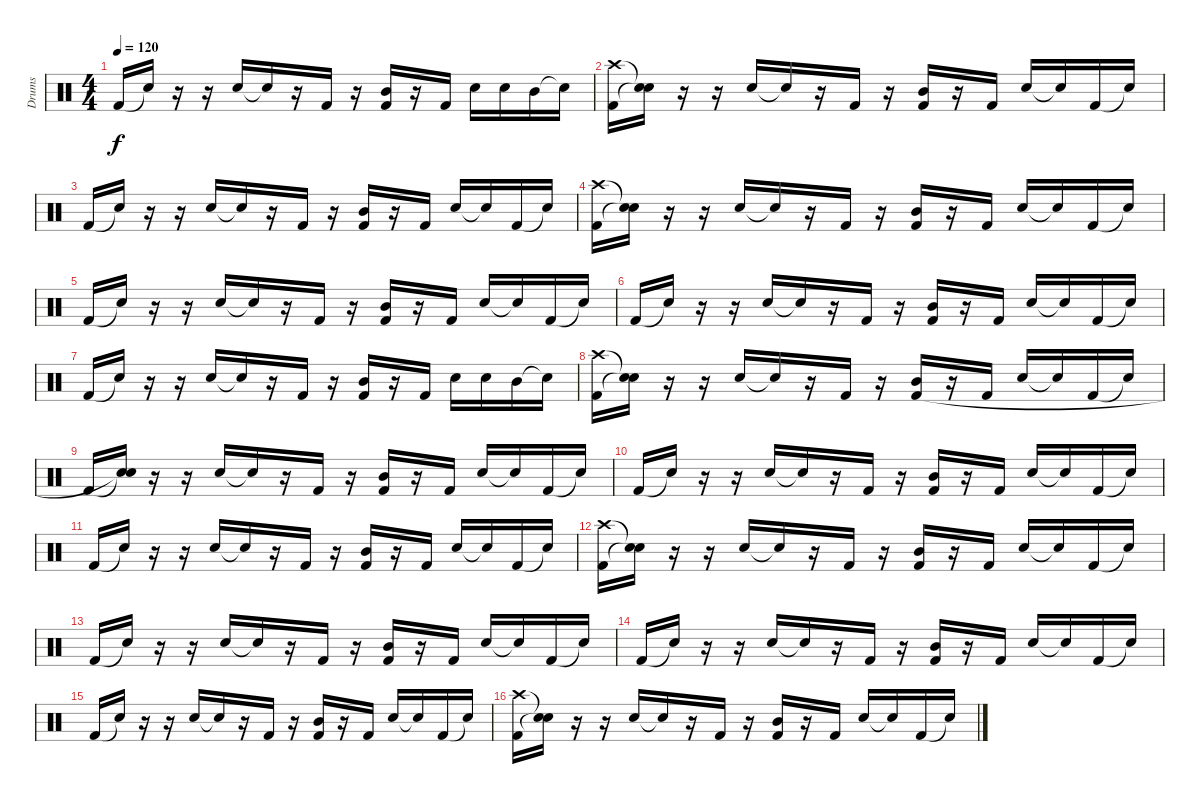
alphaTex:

\track ("Drums" "Drums") {instrument percussion}
\staff {score}
\articulation defaults
\ts (4 4)
\tempo 120
\clef neutral
\ks c "Kick (hit) 2".16{dy f} "Snare (hit)"{t}.16
r.16 r.16 "Snare (hit) 2".16 "Snare (hit)"{t}.16 r.16 "Kick (hit) 2".16 r.16 ("Mid Tom (hit)" "Kick (hit) 2").16 r.16 "Kick (hit) 2".16 "Snare (hit) 2".16 "Snare (hit) 2".16 "Mid Tom (hit)".16 "Snare (hit)"{t}.16 |
("Crash high (hit)" "Kick (hit) 2").16 ("Snare (hit)"{t} "Snare (hit)"{t}).16 r.16 r.16 "Snare (hit) 2".16 "Snare (hit)"{t}.16 r.16 "Kick (hit) 2".16 r.16 ("Mid Tom (hit)" "Kick (hit) 2").16 r.16 "Kick (hit) 2".16 "Snare (hit) 2".16 "Snare (hit)"{t}.16 "Kick (hit) 2".16 "Snare (hit)"{t}.16 |
"Kick (hit) 2".16 "Snare (hit)"{t}.16 r.16 r.16 "Snare (hit) 2".16 "Snare (hit)"{t}.16 r.16 "Kick (hit) 2".16 r.16 ("Mid Tom (hit)" "Kick (hit) 2").16 r.16 "Kick (hit) 2".16 "Snare (hit) 2".16 "Snare (hit)"{t}.16 "Kick (hit) 2".16 "Snare (hit)"{t}.16 |
("Crash high (hit)" "Kick (hit) 2").16 ("Snare (hit)"{t} "Snare (hit)"{t}).16 r.16 r.16 "Snare (hit) 2".16 "Snare (hit)"{t}.16 r.16 "Kick (hit) 2".16 r.16 ("Mid Tom (hit)" "Kick (hit) 2").16 r.16 "Kick (hit) 2".16 "Snare (hit) 2".16 "Snare (hit)"{t}.16 "Kick (hit) 2".16 "Snare (hit)"{t}.16 |
"Kick (hit) 2".16 "Snare (hit)"{t}.16 r.16 r.16 "Snare (hit) 2".16 "Snare (hit)"{t}.16 r.16 "Kick (hit) 2".16 r.16 ("Mid Tom (hit)" "Kick (hit) 2").16 r.16 "Kick (hit) 2".16 "Snare (hit) 2".16 "Snare (hit)"{t}.16 "Kick (hit) 2".16 "Snare (hit)"{t}.16 |
"Kick (hit) 2".16 "Snare (hit)"{t}.16 r.16 r.16 "Snare (hit) 2".16 "Snare (hit)"{t}.16 r.16 "Kick (hit) 2".16 r.16 ("Mid Tom (hit)" "Kick (hit) 2").16 r.16 "Kick (hit) 2".16 "Snare (hit) 2".16 "Snare (hit)"{t}.16 "Kick (hit) 2".16 "Snare (hit)"{t}.16 |
"Kick (hit) 2".16 "Snare (hit)"{t}.16 r.16 r.16 "Snare (hit) 2".16 "Snare (hit)"{t}.16 r.16 "Kick (hit) 2".16 r.16 ("Mid Tom (hit)" "Kick (hit) 2").16 r.16 "Kick (hit) 2".16 "Snare (hit) 2".16 "Snare (hit) 2".16 "Mid Tom (hit)".16 "Snare (hit)"{t}.16 |
("Crash high (hit)" "Kick (hit) 2").16 ("Snare (hit)"{t} "Snare (hit)"{t}).16 r.16 r.16 "Snare (hit) 2".16 "Snare (hit)"{t}.16 r.16 "Kick (hit) 2".16 r.16 ("Mid Tom (hit)" "Kick (hit) 2").16 r.16 "Kick (hit) 2".16 "Snare (hit) 2".16 "Snare (hit)"{t}.16 "Kick (hit) 2".16 "Snare (hit)"{t}.16 |
"Kick (hit) 2".16 ("Snare (hit)"{t} "Snare (hit)"{t}).16 r.16 r.16 "Snare (hit) 2".16 "Snare (hit)"{t}.16 r.16 "Kick (hit) 2".16 r.16 ("Mid Tom (hit)" "Kick (hit) 2").16 r.16 "Kick (hit) 2".16 "Snare (hit) 2".16 "Snare (hit)"{t}.16 "Kick (hit) 2".16 "Snare (hit)"{t}.16 |
"Kick (hit) 2".16 "Snare (hit)"{t}.16 r.16 r.16 "Snare (hit) 2".16 "Snare (hit)"{t}.16 r.16 "Kick (hit) 2".16 r.16 ("Mid Tom (hit)" "Kick (hit) 2").16 r.16 "Kick (hit) 2".16 "Snare (hit) 2".16 "Snare (hit)"{t}.16 "Kick (hit) 2".16 "Snare (hit)"{t}.16 |
"Kick (hit) 2".16 "Snare (hit)"{t}.16 r.16 r.16 "Snare (hit) 2".16 "Snare (hit)"{t}.16 r.16 "Kick (hit) 2".16 r.16 ("Mid Tom (hit)" "Kick (hit) 2").16 r.16 "Kick (hit) 2".16 "Snare (hit) 2".16 "Snare (hit)"{t}.16 "Kick (hit) 2".16 "Snare (hit)"{t}.16 |
("Crash high (hit)" "Kick (hit) 2").16 ("Snare (hit)"{t} "Snare (hit)"{t}).16 r.16 r.16 "Snare (hit) 2".16 "Snare (hit)"{t}.16 r.16 "Kick (hit) 2".16 r.16 ("Mid Tom (hit)" "Kick (hit) 2").16 r.16 "Kick (hit) 2".16 "Snare (hit) 2".16 "Snare (hit)"{t}.16 "Kick (hit) 2".16 "Snare (hit)"{t}.16 |
"Kick (hit) 2".16 "Snare (hit)"{t}.16 r.16 r.16 "Snare (hit) 2".16 "Snare (hit)"{t}.16 r.16 "Kick (hit) 2".16 r.16 ("Mid Tom (hit)" "Kick (hit) 2").16 r.16 "Kick (hit) 2".16 "Snare (hit) 2".16 "Snare (hit)"{t}.16 "Kick (hit) 2".16 "Snare (hit)"{t}.16 |
"Kick (hit) 2".16 "Snare (hit)"{t}.16 r.16 r.16 "Snare (hit) 2".16 "Snare (hit)"{t}.16 r.16 "Kick (hit) 2".16 r.16 ("Mid Tom (hit)" "Kick (hit) 2").16 r.16 "Kick (hit) 2".16 "Snare (hit) 2".16 "Snare (hit)"{t}.16 "Kick (hit) 2".16 "Snare (hit)"{t}.16 |
"Kick (hit) 2".16 "Snare (hit)"{t}.16 r.16 r.16 "Snare (hit) 2".16 "Snare (hit)"{t}.16 r.16 "Kick (hit) 2".16 r.16 ("Mid Tom (hit)" "Kick (hit) 2").16 r.16 "Kick (hit) 2".16 "Snare (hit) 2".16 "Snare (hit)"{t}.16 "Kick (hit) 2".16 "Snare (hit)"{t}.16 |
("Crash high (hit)" "Kick (hit) 2").16 ("Snare (hit)"{t} "Snare (hit)"{t}).16 r.16 r.16 "Snare (hit) 2".16 "Snare (hit)"{t}.16 r.16 "Kick (hit) 2".16 r.16 ("Mid Tom (hit)" "Kick (hit) 2").16 r.16 "Kick (hit) 2".16 "Snare (hit) 2".16 "Snare (hit)"{t}.16 "Kick (hit) 2".16 "Snare (hit)"{t}.16
